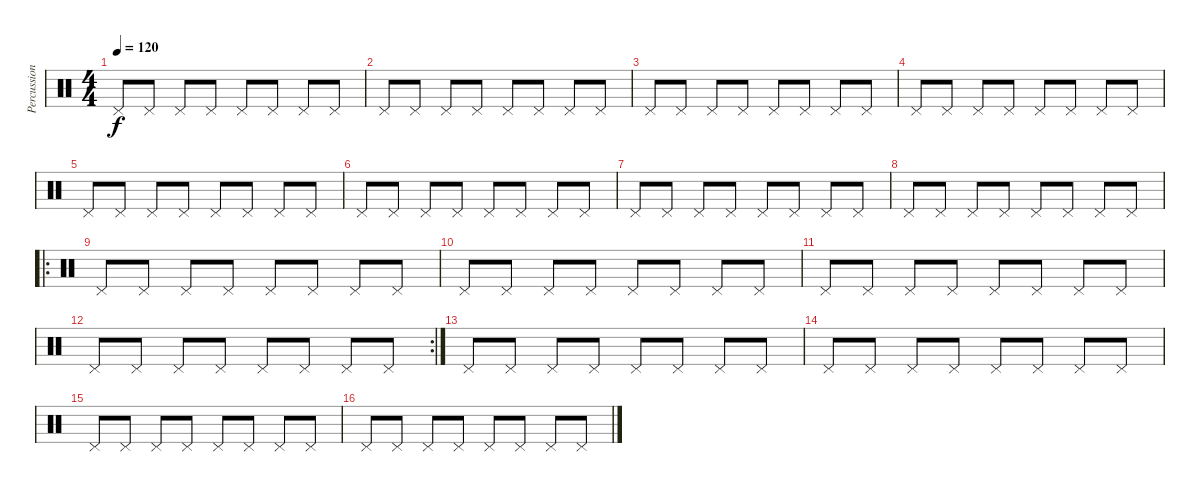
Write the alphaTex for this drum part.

\track ("Percussion" "Percussion") {instrument percussion}
\staff {score}
\articulation defaults
\ts (4 4)
\tempo 120
\clef neutral
\ks c "Pedal Hi-Hat (hit)".8{dy f} "Pedal Hi-Hat (hit)".8 "Pedal Hi-Hat (hit)".8 "Pedal Hi-Hat (hit)".8 "Pedal Hi-Hat (hit)".8 "Pedal Hi-Hat (hit)".8 "Pedal Hi-Hat (hit)".8 "Pedal Hi-Hat (hit)".8
|
"Pedal Hi-Hat (hit)".8 "Pedal Hi-Hat (hit)".8 "Pedal Hi-Hat (hit)".8 "Pedal Hi-Hat (hit)".8 "Pedal Hi-Hat (hit)".8 "Pedal Hi-Hat (hit)".8 "Pedal Hi-Hat (hit)".8 "Pedal Hi-Hat (hit)".8 |
"Pedal Hi-Hat (hit)".8 "Pedal Hi-Hat (hit)".8 "Pedal Hi-Hat (hit)".8 "Pedal Hi-Hat (hit)".8 "Pedal Hi-Hat (hit)".8 "Pedal Hi-Hat (hit)".8 "Pedal Hi-Hat (hit)".8 "Pedal Hi-Hat (hit)".8 |
"Pedal Hi-Hat (hit)".8 "Pedal Hi-Hat (hit)".8 "Pedal Hi-Hat (hit)".8 "Pedal Hi-Hat (hit)".8 "Pedal Hi-Hat (hit)".8 "Pedal Hi-Hat (hit)".8 "Pedal Hi-Hat (hit)".8 "Pedal Hi-Hat (hit)".8 |
"Pedal Hi-Hat (hit)".8 "Pedal Hi-Hat (hit)".8 "Pedal Hi-Hat (hit)".8 "Pedal Hi-Hat (hit)".8 "Pedal Hi-Hat (hit)".8 "Pedal Hi-Hat (hit)".8 "Pedal Hi-Hat (hit)".8 "Pedal Hi-Hat (hit)".8 |
"Pedal Hi-Hat (hit)".8 "Pedal Hi-Hat (hit)".8 "Pedal Hi-Hat (hit)".8 "Pedal Hi-Hat (hit)".8 "Pedal Hi-Hat (hit)".8 "Pedal Hi-Hat (hit)".8 "Pedal Hi-Hat (hit)".8 "Pedal Hi-Hat (hit)".8 |
"Pedal Hi-Hat (hit)".8 "Pedal Hi-Hat (hit)".8 "Pedal Hi-Hat (hit)".8 "Pedal Hi-Hat (hit)".8 "Pedal Hi-Hat (hit)".8 "Pedal Hi-Hat (hit)".8 "Pedal Hi-Hat (hit)".8 "Pedal Hi-Hat (hit)".8 |
"Pedal Hi-Hat (hit)".8 "Pedal Hi-Hat (hit)".8 "Pedal Hi-Hat (hit)".8 "Pedal Hi-Hat (hit)".8 "Pedal Hi-Hat (hit)".8 "Pedal Hi-Hat (hit)".8 "Pedal Hi-Hat (hit)".8 "Pedal Hi-Hat (hit)".8 |
\ro "Pedal Hi-Hat (hit)".8 "Pedal Hi-Hat (hit)".8 "Pedal Hi-Hat (hit)".8 "Pedal Hi-Hat (hit)".8 "Pedal Hi-Hat (hit)".8 "Pedal Hi-Hat (hit)".8 "Pedal Hi-Hat (hit)".8 "Pedal Hi-Hat (hit)".8
|
"Pedal Hi-Hat (hit)".8 "Pedal Hi-Hat (hit)".8 "Pedal Hi-Hat (hit)".8 "Pedal Hi-Hat (hit)".8 "Pedal Hi-Hat (hit)".8 "Pedal Hi-Hat (hit)".8 "Pedal Hi-Hat (hit)".8 "Pedal Hi-Hat (hit)".8 |
"Pedal Hi-Hat (hit)".8 "Pedal Hi-Hat (hit)".8 "Pedal Hi-Hat (hit)".8 "Pedal Hi-Hat (hit)".8 "Pedal Hi-Hat (hit)".8 "Pedal Hi-Hat (hit)".8 "Pedal Hi-Hat (hit)".8 "Pedal Hi-Hat (hit)".8 |
\rc 2 "Pedal Hi-Hat (hit)".8 "Pedal Hi-Hat (hit)".8 "Pedal Hi-Hat (hit)".8 "Pedal Hi-Hat (hit)".8 "Pedal Hi-Hat (hit)".8 "Pedal Hi-Hat (hit)".8 "Pedal Hi-Hat (hit)".8 "Pedal Hi-Hat (hit)".8
|
"Pedal Hi-Hat (hit)".8 "Pedal Hi-Hat (hit)".8 "Pedal Hi-Hat (hit)".8 "Pedal Hi-Hat (hit)".8 "Pedal Hi-Hat (hit)".8 "Pedal Hi-Hat (hit)".8 "Pedal Hi-Hat (hit)".8 "Pedal Hi-Hat (hit)".8 |
"Pedal Hi-Hat (hit)".8 "Pedal Hi-Hat (hit)".8 "Pedal Hi-Hat (hit)".8 "Pedal Hi-Hat (hit)".8 "Pedal Hi-Hat (hit)".8 "Pedal Hi-Hat (hit)".8 "Pedal Hi-Hat (hit)".8 "Pedal Hi-Hat (hit)".8 |
"Pedal Hi-Hat (hit)".8 "Pedal Hi-Hat (hit)".8 "Pedal Hi-Hat (hit)".8 "Pedal Hi-Hat (hit)".8 "Pedal Hi-Hat (hit)".8 "Pedal Hi-Hat (hit)".8 "Pedal Hi-Hat (hit)".8 "Pedal Hi-Hat (hit)".8 |
"Pedal Hi-Hat (hit)".8 "Pedal Hi-Hat (hit)".8 "Pedal Hi-Hat (hit)".8 "Pedal Hi-Hat (hit)".8 "Pedal Hi-Hat (hit)".8 "Pedal Hi-Hat (hit)".8 "Pedal Hi-Hat (hit)".8 "Pedal Hi-Hat (hit)".8
